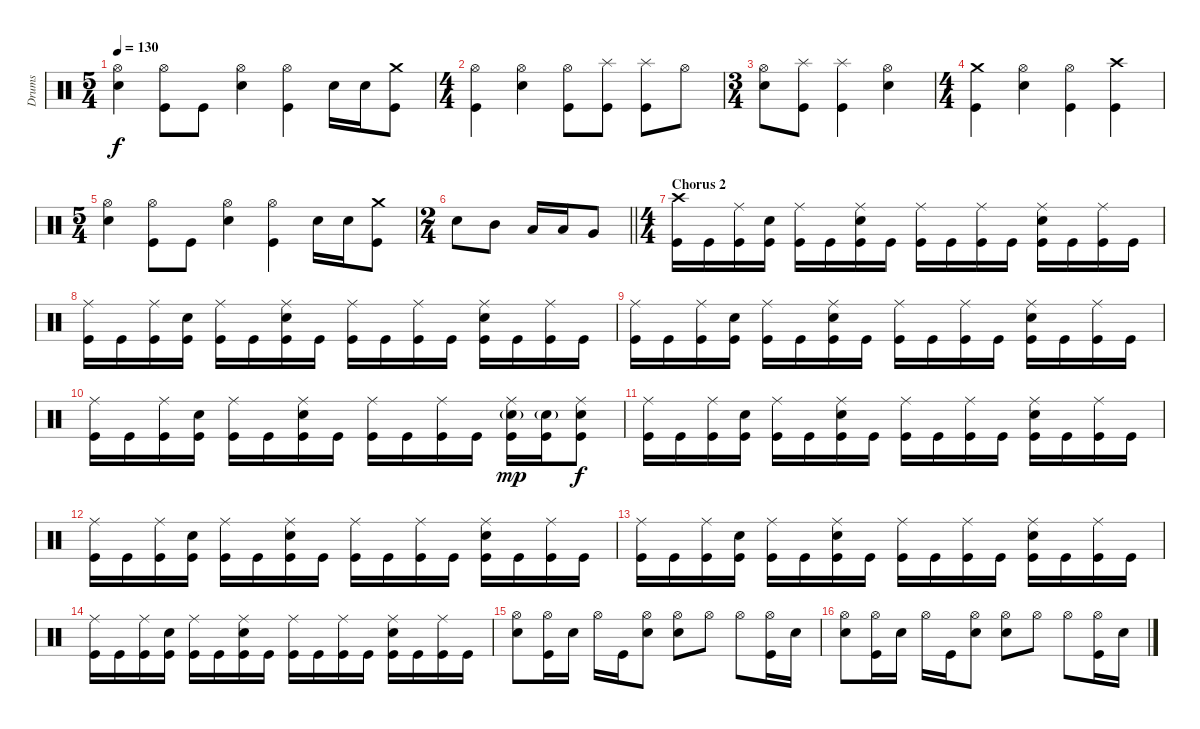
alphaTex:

\track ("Drums" "Drums") {instrument percussion}
\staff {score}
\articulation defaults
\ts (5 4)
\tempo 130
\clef neutral
\ks c
("Hi-Hat (open)" "Snare (hit) 2").4{dy f} ("Hi-Hat (open)" "Kick (hit)").8 "Kick (hit)".8 ("Hi-Hat (open)" "Snare (hit) 2").4 ("Hi-Hat (open)" "Kick (hit)").4 "Snare (hit) 2".16 "Snare (hit) 2".16 ("Crash medium (hit)" "Kick (hit)").8 |
\ts (4 4)
("Hi-Hat (open)" "Kick (hit)").4 ("Hi-Hat (open)" "Snare (hit) 2").4 ("Hi-Hat (open)" "Kick (hit)").8 ("Splash (hit)" "Kick (hit)").8 ("Splash (hit)" "Kick (hit)").8 "Hi-Hat (open)".8 |
\ts (3 4)
("Hi-Hat (open)" "Snare (hit) 2").8 ("Splash (hit)" "Kick (hit)").8 ("Splash (hit)" "Kick (hit)").4 ("Hi-Hat (open)" "Snare (hit) 2").4 |
\ts (4 4)
("Crash medium (hit)" "Kick (hit)").4 ("Hi-Hat (open)" "Snare (hit) 2").4 ("Hi-Hat (open)" "Kick (hit)").4 ("Crash high (hit)" "Kick (hit)").4 |
\ts (5 4)
("Hi-Hat (open)" "Snare (hit) 2").4 ("Hi-Hat (open)" "Kick (hit)").8 "Kick (hit)".8 ("Hi-Hat (open)" "Snare (hit) 2").4 ("Hi-Hat (open)" "Kick (hit)").4 "Snare (hit) 2".16 "Snare (hit) 2".16 ("Crash medium (hit)" "Kick (hit)").8 |
\ts (2 4)
\barLineRight lightlight "Snare (hit) 2".8 "Mid Tom (hit)".8 "Low Tom (hit)".16 "Low Tom (hit)".16 "Very Low Tom (hit)".8
|
\ts (4 4)
\section ("" "Chorus 2")
("Crash high (hit)" "Kick (hit)").16 "Kick (hit)".16 ("Ride (middle)" "Kick (hit)").16 ("Snare (hit) 2" "Kick (hit)").16 ("Ride (middle)" "Kick (hit)").16 "Kick (hit)".16 ("Ride (middle)" "Snare (hit) 2" "Kick (hit)").16 "Kick (hit)".16 ("Ride (middle)" "Kick (hit)").16 "Kick (hit)".16 ("Ride (middle)" "Kick (hit)").16 "Kick (hit)".16 ("Ride (middle)" "Snare (hit) 2" "Kick (hit)").16 "Kick (hit)".16 ("Ride (middle)" "Kick (hit)").16 "Kick (hit)".16 |
("Ride (middle)" "Kick (hit)").16 "Kick (hit)".16 ("Ride (middle)" "Kick (hit)").16 ("Snare (hit) 2" "Kick (hit)").16 ("Ride (middle)" "Kick (hit)").16 "Kick (hit)".16 ("Ride (middle)" "Snare (hit) 2" "Kick (hit)").16 "Kick (hit)".16 ("Ride (middle)" "Kick (hit)").16 "Kick (hit)".16 ("Ride (middle)" "Kick (hit)").16 "Kick (hit)".16 ("Ride (middle)" "Snare (hit) 2" "Kick (hit)").16 "Kick (hit)".16 ("Ride (middle)" "Kick (hit)").16 "Kick (hit)".16 |
("Ride (middle)" "Kick (hit)").16 "Kick (hit)".16 ("Ride (middle)" "Kick (hit)").16 ("Snare (hit) 2" "Kick (hit)").16 ("Ride (middle)" "Kick (hit)").16 "Kick (hit)".16 ("Ride (middle)" "Snare (hit) 2" "Kick (hit)").16 "Kick (hit)".16 ("Ride (middle)" "Kick (hit)").16 "Kick (hit)".16 ("Ride (middle)" "Kick (hit)").16 "Kick (hit)".16 ("Ride (middle)" "Snare (hit) 2" "Kick (hit)").16 "Kick (hit)".16 ("Ride (middle)" "Kick (hit)").16 "Kick (hit)".16 |
("Ride (middle)" "Kick (hit)").16 "Kick (hit)".16 ("Ride (middle)" "Kick (hit)").16 ("Snare (hit) 2" "Kick (hit)").16 ("Ride (middle)" "Kick (hit)").16 "Kick (hit)".16 ("Ride (middle)" "Snare (hit) 2" "Kick (hit)").16 "Kick (hit)".16 ("Ride (middle)" "Kick (hit)").16 "Kick (hit)".16 ("Ride (middle)" "Kick (hit)").16 "Kick (hit)".16 ("Ride (middle)" "Snare (hit) 2"{g} "Kick (hit)").16{dy mp} ("Snare (hit) 2"{g} "Kick (hit)").16 ("Ride (middle)" "Snare (hit) 2" "Kick (hit)").8{dy f} |
("Ride (middle)" "Kick (hit)").16 "Kick (hit)".16 ("Ride (middle)" "Kick (hit)").16 ("Snare (hit) 2" "Kick (hit)").16 ("Ride (middle)" "Kick (hit)").16 "Kick (hit)".16 ("Ride (middle)" "Snare (hit) 2" "Kick (hit)").16 "Kick (hit)".16 ("Ride (middle)" "Kick (hit)").16 "Kick (hit)".16 ("Ride (middle)" "Kick (hit)").16 "Kick (hit)".16 ("Ride (middle)" "Snare (hit) 2" "Kick (hit)").16 "Kick (hit)".16 ("Ride (middle)" "Kick (hit)").16 "Kick (hit)".16 |
("Ride (middle)" "Kick (hit)").16 "Kick (hit)".16 ("Ride (middle)" "Kick (hit)").16 ("Snare (hit) 2" "Kick (hit)").16 ("Ride (middle)" "Kick (hit)").16 "Kick (hit)".16 ("Ride (middle)" "Snare (hit) 2" "Kick (hit)").16 "Kick (hit)".16 ("Ride (middle)" "Kick (hit)").16 "Kick (hit)".16 ("Ride (middle)" "Kick (hit)").16 "Kick (hit)".16 ("Ride (middle)" "Snare (hit) 2" "Kick (hit)").16 "Kick (hit)".16 ("Ride (middle)" "Kick (hit)").16 "Kick (hit)".16 |
("Ride (middle)" "Kick (hit)").16 "Kick (hit)".16 ("Ride (middle)" "Kick (hit)").16 ("Snare (hit) 2" "Kick (hit)").16 ("Ride (middle)" "Kick (hit)").16 "Kick (hit)".16 ("Ride (middle)" "Snare (hit) 2" "Kick (hit)").16 "Kick (hit)".16 ("Ride (middle)" "Kick (hit)").16 "Kick (hit)".16 ("Ride (middle)" "Kick (hit)").16 "Kick (hit)".16 ("Ride (middle)" "Snare (hit) 2" "Kick (hit)").16 "Kick (hit)".16 ("Ride (middle)" "Kick (hit)").16 "Kick (hit)".16 |
("Ride (middle)" "Kick (hit)").16 "Kick (hit)".16 ("Ride (middle)" "Kick (hit)").16 ("Snare (hit) 2" "Kick (hit)").16 ("Ride (middle)" "Kick (hit)").16 "Kick (hit)".16 ("Ride (middle)" "Snare (hit) 2" "Kick (hit)").16 "Kick (hit)".16 ("Ride (middle)" "Kick (hit)").16 "Kick (hit)".16 ("Ride (middle)" "Kick (hit)").16 "Kick (hit)".16 ("Ride (middle)" "Snare (hit) 2" "Kick (hit)").16 "Kick (hit)".16 ("Ride (middle)" "Kick (hit)").16 "Kick (hit)".16 |
("Hi-Hat (open)" "Snare (hit) 2").8 ("Hi-Hat (open)" "Kick (hit)").16 "Snare (hit) 2".16 "Hi-Hat (open)".16 "Kick (hit)".16 ("Hi-Hat (open)" "Snare (hit) 2").8 ("Hi-Hat (open)" "Snare (hit) 2").8 "Hi-Hat (open)".8 "Hi-Hat (open)".8 ("Hi-Hat (open)" "Kick (hit)").16 "Snare (hit) 2".16 |
("Hi-Hat (open)" "Snare (hit) 2").8 ("Hi-Hat (open)" "Kick (hit)").16 "Snare (hit) 2".16 "Hi-Hat (open)".16 "Kick (hit)".16 ("Hi-Hat (open)" "Snare (hit) 2").8 ("Hi-Hat (open)" "Snare (hit) 2").8 "Hi-Hat (open)".8 "Hi-Hat (open)".8 ("Hi-Hat (open)" "Kick (hit)").16 "Snare (hit) 2".16
